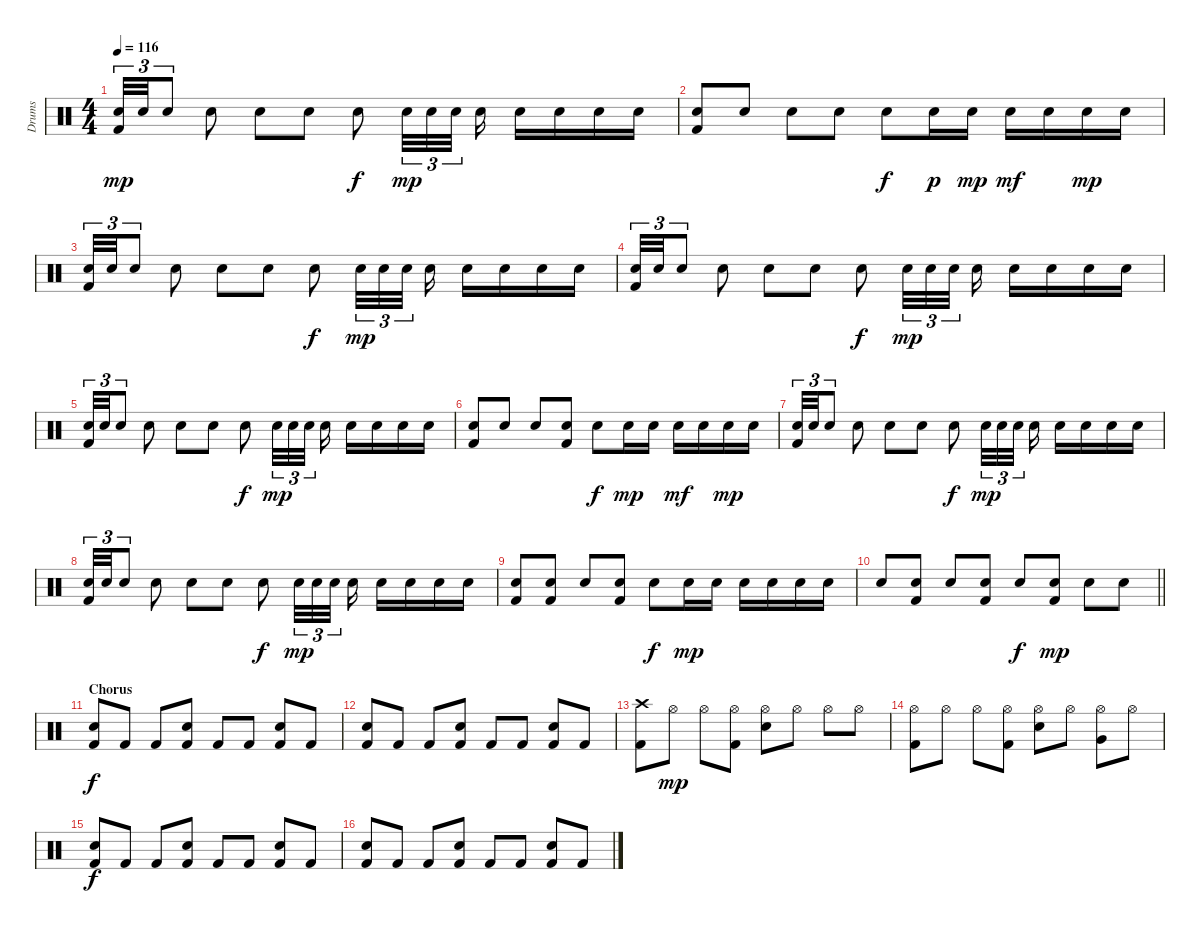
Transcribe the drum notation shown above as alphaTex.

\track ("Drums" "Drums") {instrument percussion}
\staff {score}
\articulation defaults
\ts (4 4)
\tempo 116
\clef neutral
\ks c
("Kick (hit) 2" "Snare (hit) 2").32{tu (3 2) dy mp} "Snare (hit) 2".32{tu (3 2)} "Snare (hit) 2".8{tu (3 2)} "Snare (hit) 2".8 "Snare (hit) 2".8 "Snare (hit) 2".8 "Snare (hit) 2".8{dy f} "Snare (hit) 2".32{tu (3 2) dy mp} "Snare (hit) 2".32{tu (3 2)} "Snare (hit) 2".32{tu (3 2)} "Snare (hit) 2".16 "Snare (hit) 2".16 "Snare (hit) 2".16 "Snare (hit) 2".16 "Snare (hit) 2".16 |
("Kick (hit) 2" "Snare (hit) 2").8 "Snare (hit) 2".8 "Snare (hit) 2".8 "Snare (hit) 2".8 "Snare (hit) 2".8{dy f} "Snare (hit) 2".16{dy p} "Snare (hit) 2".16{dy mp} "Snare (hit) 2".16{dy mf} "Snare (hit) 2".16 "Snare (hit) 2".16{dy mp} "Snare (hit) 2".16 |
("Kick (hit) 2" "Snare (hit) 2").32{tu (3 2)} "Snare (hit) 2".32{tu (3 2)} "Snare (hit) 2".8{tu (3 2)} "Snare (hit) 2".8 "Snare (hit) 2".8 "Snare (hit) 2".8 "Snare (hit) 2".8{dy f} "Snare (hit) 2".32{tu (3 2) dy mp} "Snare (hit) 2".32{tu (3 2)} "Snare (hit) 2".32{tu (3 2)} "Snare (hit) 2".16 "Snare (hit) 2".16 "Snare (hit) 2".16 "Snare (hit) 2".16 "Snare (hit) 2".16 |
("Kick (hit) 2" "Snare (hit) 2").32{tu (3 2)} "Snare (hit) 2".32{tu (3 2)} "Snare (hit) 2".8{tu (3 2)} "Snare (hit) 2".8 "Snare (hit) 2".8 "Snare (hit) 2".8 "Snare (hit) 2".8{dy f} "Snare (hit) 2".32{tu (3 2) dy mp} "Snare (hit) 2".32{tu (3 2)} "Snare (hit) 2".32{tu (3 2)} "Snare (hit) 2".16 "Snare (hit) 2".16 "Snare (hit) 2".16 "Snare (hit) 2".16 "Snare (hit) 2".16 |
("Kick (hit) 2" "Snare (hit) 2").32{tu (3 2)} "Snare (hit) 2".32{tu (3 2)} "Snare (hit) 2".8{tu (3 2)} "Snare (hit) 2".8 "Snare (hit) 2".8 "Snare (hit) 2".8 "Snare (hit) 2".8{dy f} "Snare (hit) 2".32{tu (3 2) dy mp} "Snare (hit) 2".32{tu (3 2)} "Snare (hit) 2".32{tu (3 2)} "Snare (hit) 2".16 "Snare (hit) 2".16 "Snare (hit) 2".16 "Snare (hit) 2".16 "Snare (hit) 2".16 |
("Kick (hit) 2" "Snare (hit) 2").8 "Snare (hit) 2".8 "Snare (hit) 2".8 ("Kick (hit) 2" "Snare (hit) 2").8 "Snare (hit) 2".8{dy f} "Snare (hit) 2".16{dy mp} "Snare (hit) 2".16 "Snare (hit) 2".16{dy mf} "Snare (hit) 2".16 "Snare (hit) 2".16{dy mp} "Snare (hit) 2".16 |
("Kick (hit) 2" "Snare (hit) 2").32{tu (3 2)} "Snare (hit) 2".32{tu (3 2)} "Snare (hit) 2".8{tu (3 2)} "Snare (hit) 2".8 "Snare (hit) 2".8 "Snare (hit) 2".8 "Snare (hit) 2".8{dy f} "Snare (hit) 2".32{tu (3 2) dy mp} "Snare (hit) 2".32{tu (3 2)} "Snare (hit) 2".32{tu (3 2)} "Snare (hit) 2".16 "Snare (hit) 2".16 "Snare (hit) 2".16 "Snare (hit) 2".16 "Snare (hit) 2".16 |
("Kick (hit) 2" "Snare (hit) 2").32{tu (3 2)} "Snare (hit) 2".32{tu (3 2)} "Snare (hit) 2".8{tu (3 2)} "Snare (hit) 2".8 "Snare (hit) 2".8 "Snare (hit) 2".8 "Snare (hit) 2".8{dy f} "Snare (hit) 2".32{tu (3 2) dy mp} "Snare (hit) 2".32{tu (3 2)} "Snare (hit) 2".32{tu (3 2)} "Snare (hit) 2".16 "Snare (hit) 2".16 "Snare (hit) 2".16 "Snare (hit) 2".16 "Snare (hit) 2".16 |
("Kick (hit) 2" "Snare (hit) 2").8 ("Kick (hit) 2" "Snare (hit) 2").8 "Snare (hit) 2".8 ("Kick (hit) 2" "Snare (hit) 2").8 "Snare (hit) 2".8{dy f} "Snare (hit) 2".16{dy mp} "Snare (hit) 2".16 "Snare (hit) 2".16 "Snare (hit) 2".16 "Snare (hit) 2".16 "Snare (hit) 2".16 |
\barLineRight lightlight "Snare (hit) 2".8
("Kick (hit) 2" "Snare (hit) 2").8 "Snare (hit) 2".8 ("Kick (hit) 2" "Snare (hit) 2").8 "Snare (hit) 2".8{dy f} ("Kick (hit) 2" "Snare (hit) 2").8{dy mp} "Snare (hit) 2".8 "Snare (hit) 2".8 |
\section ("" "Chorus")
("Kick (hit) 2" "Snare (hit) 2").8{dy f} "Kick (hit) 2".8 "Kick (hit) 2".8 ("Kick (hit) 2" "Snare (hit) 2").8 "Kick (hit) 2".8 "Kick (hit) 2".8 ("Kick (hit) 2" "Snare (hit) 2").8 "Kick (hit) 2".8 |
("Kick (hit) 2" "Snare (hit) 2").8 "Kick (hit) 2".8 "Kick (hit) 2".8 ("Kick (hit) 2" "Snare (hit) 2").8 "Kick (hit) 2".8 "Kick (hit) 2".8 ("Kick (hit) 2" "Snare (hit) 2").8 "Kick (hit) 2".8 |
("Kick (hit) 2" "Crash high (hit)").8 "Hi-Hat (open)".8{dy mp} "Hi-Hat (open)".8 ("Kick (hit) 2" "Hi-Hat (open)").8 ("Snare (hit) 2" "Hi-Hat (open)").8 "Hi-Hat (open)".8 "Hi-Hat (open)".8 "Hi-Hat (open)".8 |
("Kick (hit) 2" "Hi-Hat (open)").8 "Hi-Hat (open)".8 "Hi-Hat (open)".8 ("Kick (hit) 2" "Hi-Hat (open)").8 ("Snare (hit) 2" "Hi-Hat (open)").8 "Hi-Hat (open)".8 ("Hi-Hat (open)" "Very Low Tom (hit)").8 "Hi-Hat (open)".8 |
("Kick (hit) 2" "Snare (hit) 2").8{dy f} "Kick (hit) 2".8 "Kick (hit) 2".8 ("Kick (hit) 2" "Snare (hit) 2").8 "Kick (hit) 2".8 "Kick (hit) 2".8 ("Kick (hit) 2" "Snare (hit) 2").8 "Kick (hit) 2".8 |
("Kick (hit) 2" "Snare (hit) 2").8 "Kick (hit) 2".8 "Kick (hit) 2".8 ("Kick (hit) 2" "Snare (hit) 2").8 "Kick (hit) 2".8 "Kick (hit) 2".8 ("Kick (hit) 2" "Snare (hit) 2").8 "Kick (hit) 2".8
